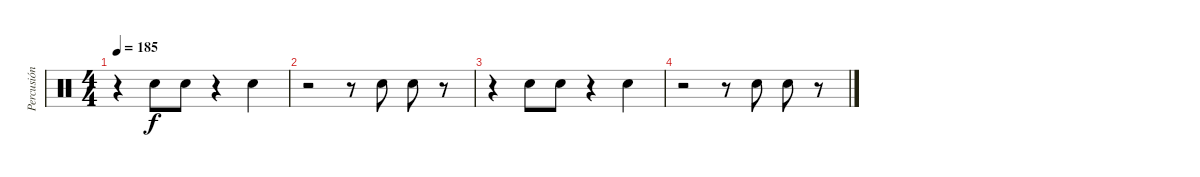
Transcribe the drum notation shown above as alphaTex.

\track ("Percusión" "Percusión") {instrument percussion}
\staff {score}
\articulation defaults
\ts (4 4)
\tempo 185
\clef neutral
\ks c
r.4{dy f} "Hand Clap (hit)".8 "Hand Clap (hit)".8 r.4 "Hand Clap (hit)".4 |
r.2 r.8 "Hand Clap (hit)".8 "Hand Clap (hit)".8 r.8 |
r.4 "Hand Clap (hit)".8 "Hand Clap (hit)".8 r.4 "Hand Clap (hit)".4 |
r.2 r.8 "Hand Clap (hit)".8 "Hand Clap (hit)".8 r.8
